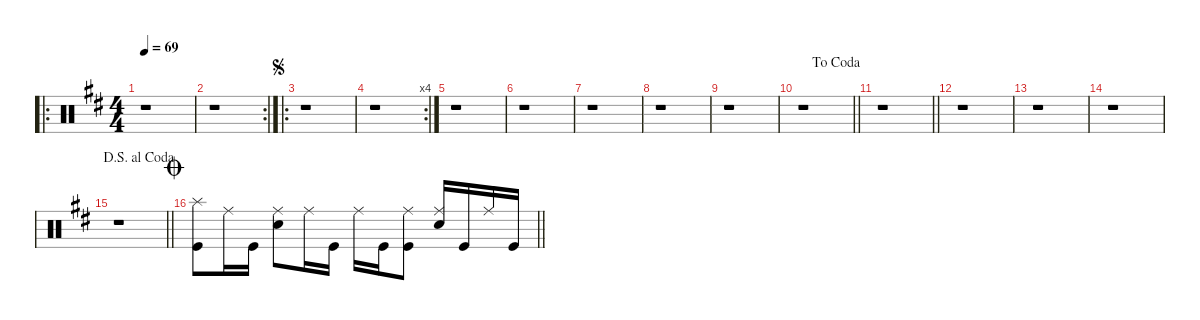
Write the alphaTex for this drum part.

\defaultSystemsLayout 4
\hideDynamics
\bracketExtendMode nobrackets
\singleTrackTrackNamePolicy hidden
\multiTrackTrackNamePolicy hidden
\firstSystemTrackNameMode fullname
\firstSystemTrackNameOrientation horizontal
\otherSystemsTrackNameOrientation horizontal
\track ("Percussion" "drm.") {instrument percussion}
\staff {score}
\articulation defaults
\ro
\ts (4 4)
\beaming (8 2 2 2 2)
\tempo 69
\clef neutral
\ks bminor
r.1{dy f beam Down} |
\rc 2
r.1{beam Down} |
\ro
\jump segno
r.1{beam Down} |
\rc 4
r.1{beam Down} |
r.1{beam Down} |
r.1{beam Down} |
r.1{beam Down} |
r.1{beam Down} |
r.1{beam Down} |
\jump dacoda
\barLineRight lightlight
r.1{beam Down} |
\barLineRight lightlight
r.1{beam Down} |
r.1{beam Down} |
r.1{beam Down} |
r.1{beam Down} |
\jump dalsegnoalcoda
\barLineRight lightlight
r.1{beam Down} |
\jump coda
\barLineRight lightlight
("Splash (hit)"{acc forcenatural} "Kick (hit)"{acc forcenatural}).8{beam Down} "Ride (middle)"{acc forcenatural}.16{beam Down} "Kick (hit)"{acc forcenatural}.16{beam Down} ("Snare (hit) 2"{acc forcenatural} "Ride (middle)"{acc forcenatural}).8{beam Down} "Ride (middle)"{acc forcenatural}.16{beam Down} "Kick (hit)"{acc forcenatural}.16{beam Down} "Ride (middle)"{acc forcenatural}.16{beam Down} "Kick (hit)"{acc forcenatural}.16{beam Down} ("Kick (hit)"{acc forcenatural} "Ride (middle)"{acc forcenatural}).8{beam Down} ("Snare (hit) 2"{acc forcenatural} "Ride (middle)"{acc forcenatural}).16{beam Up} "Kick (hit)"{acc forcenatural}.16{beam Up} "Ride (middle)"{acc forcenatural}.16{beam Up} "Kick (hit)"{acc forcenatural}.16{beam Up}
